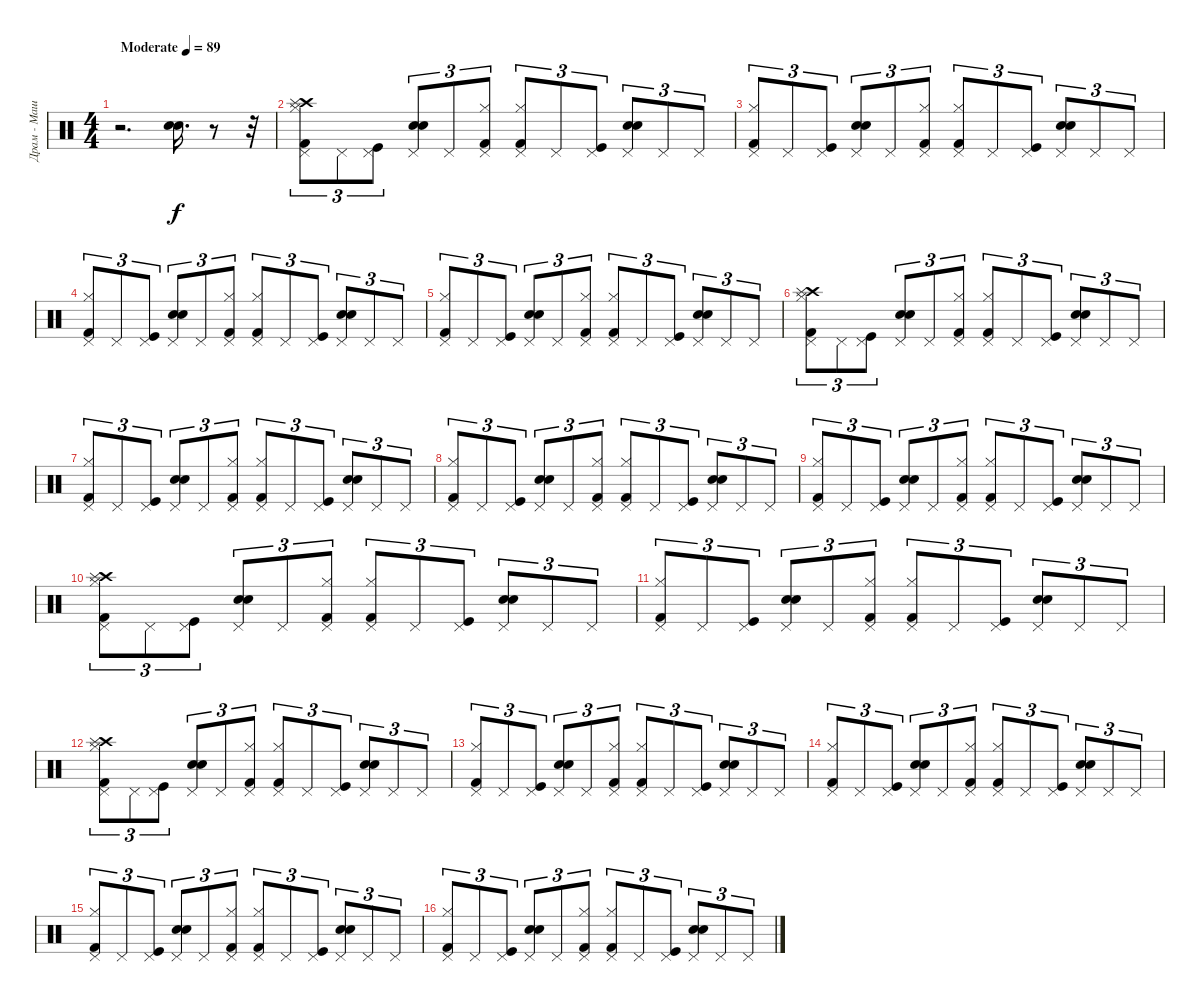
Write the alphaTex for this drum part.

\track ("Драм - Машина" "Драм - Маш") {instrument percussion}
\staff {score}
\articulation defaults
\ts (4 4)
\tempo (89 "Moderate")
\clef neutral
\ks c
r.2{d dy f} ("Snare (hit) 2" "Electric Snare (hit)").16{d} r.8 r.32 |
("Crash high (hit)" "Kick (hit) 2" "Hi-Hat (closed)" "Pedal Hi-Hat (hit)" "Splash (hit)").8{tu (3 2)} "Pedal Hi-Hat (hit)".8{tu (3 2)} ("Kick (hit)" "Pedal Hi-Hat (hit)").8{tu (3 2)} ("Snare (hit) 2" "Electric Snare (hit)" "Pedal Hi-Hat (hit)").8{tu (3 2)} "Pedal Hi-Hat (hit)".8{tu (3 2)} ("Hi-Hat (closed)" "Pedal Hi-Hat (hit)" "Kick (hit) 2").8{tu (3 2)} ("Kick (hit) 2" "Hi-Hat (closed)" "Pedal Hi-Hat (hit)").8{tu (3 2)} "Pedal Hi-Hat (hit)".8{tu (3 2)} ("Kick (hit)" "Pedal Hi-Hat (hit)").8{tu (3 2)} ("Snare (hit) 2" "Pedal Hi-Hat (hit)" "Electric Snare (hit)").8{tu (3 2)} "Pedal Hi-Hat (hit)".8{tu (3 2)} "Pedal Hi-Hat (hit)".8{tu (3 2)} |
("Kick (hit) 2" "Pedal Hi-Hat (hit)" "Hi-Hat (closed)").8{tu (3 2)} "Pedal Hi-Hat (hit)".8{tu (3 2)} ("Kick (hit)" "Pedal Hi-Hat (hit)").8{tu (3 2)} ("Snare (hit) 2" "Electric Snare (hit)" "Pedal Hi-Hat (hit)").8{tu (3 2)} "Pedal Hi-Hat (hit)".8{tu (3 2)} ("Hi-Hat (closed)" "Pedal Hi-Hat (hit)" "Kick (hit) 2").8{tu (3 2)} ("Kick (hit) 2" "Hi-Hat (closed)" "Pedal Hi-Hat (hit)").8{tu (3 2)} "Pedal Hi-Hat (hit)".8{tu (3 2)} ("Pedal Hi-Hat (hit)" "Kick (hit)").8{tu (3 2)} ("Pedal Hi-Hat (hit)" "Electric Snare (hit)" "Snare (hit) 2").8{tu (3 2)} "Pedal Hi-Hat (hit)".8{tu (3 2)} "Pedal Hi-Hat (hit)".8{tu (3 2)} |
("Hi-Hat (closed)" "Pedal Hi-Hat (hit)" "Kick (hit) 2").8{tu (3 2)} "Pedal Hi-Hat (hit)".8{tu (3 2)} ("Kick (hit)" "Pedal Hi-Hat (hit)").8{tu (3 2)} ("Snare (hit) 2" "Electric Snare (hit)" "Pedal Hi-Hat (hit)").8{tu (3 2)} "Pedal Hi-Hat (hit)".8{tu (3 2)} ("Hi-Hat (closed)" "Pedal Hi-Hat (hit)" "Kick (hit) 2").8{tu (3 2)} ("Kick (hit) 2" "Hi-Hat (closed)" "Pedal Hi-Hat (hit)").8{tu (3 2)} "Pedal Hi-Hat (hit)".8{tu (3 2)} ("Pedal Hi-Hat (hit)" "Kick (hit)").8{tu (3 2)} ("Pedal Hi-Hat (hit)" "Electric Snare (hit)" "Snare (hit) 2").8{tu (3 2)} "Pedal Hi-Hat (hit)".8{tu (3 2)} "Pedal Hi-Hat (hit)".8{tu (3 2)} |
("Kick (hit) 2" "Hi-Hat (closed)" "Pedal Hi-Hat (hit)").8{tu (3 2)} "Pedal Hi-Hat (hit)".8{tu (3 2)} ("Pedal Hi-Hat (hit)" "Kick (hit)").8{tu (3 2)} ("Snare (hit) 2" "Pedal Hi-Hat (hit)" "Electric Snare (hit)").8{tu (3 2)} "Pedal Hi-Hat (hit)".8{tu (3 2)} ("Hi-Hat (closed)" "Pedal Hi-Hat (hit)" "Kick (hit) 2").8{tu (3 2)} ("Kick (hit) 2" "Hi-Hat (closed)" "Pedal Hi-Hat (hit)").8{tu (3 2)} "Pedal Hi-Hat (hit)".8{tu (3 2)} ("Pedal Hi-Hat (hit)" "Kick (hit)").8{tu (3 2)} ("Electric Snare (hit)" "Pedal Hi-Hat (hit)" "Snare (hit) 2").8{tu (3 2)} "Pedal Hi-Hat (hit)".8{tu (3 2)} "Pedal Hi-Hat (hit)".8{tu (3 2)} |
("Crash high (hit)" "Hi-Hat (closed)" "Kick (hit) 2" "Splash (hit)" "Pedal Hi-Hat (hit)").8{tu (3 2)} "Pedal Hi-Hat (hit)".8{tu (3 2)} ("Kick (hit)" "Pedal Hi-Hat (hit)").8{tu (3 2)} ("Electric Snare (hit)" "Pedal Hi-Hat (hit)" "Snare (hit) 2").8{tu (3 2)} "Pedal Hi-Hat (hit)".8{tu (3 2)} ("Kick (hit) 2" "Pedal Hi-Hat (hit)" "Hi-Hat (closed)").8{tu (3 2)} ("Hi-Hat (closed)" "Pedal Hi-Hat (hit)" "Kick (hit) 2").8{tu (3 2)} "Pedal Hi-Hat (hit)".8{tu (3 2)} ("Pedal Hi-Hat (hit)" "Kick (hit)").8{tu (3 2)} ("Pedal Hi-Hat (hit)" "Electric Snare (hit)" "Snare (hit) 2").8{tu (3 2)} "Pedal Hi-Hat (hit)".8{tu (3 2)} "Pedal Hi-Hat (hit)".8{tu (3 2)} |
("Kick (hit) 2" "Hi-Hat (closed)" "Pedal Hi-Hat (hit)").8{tu (3 2)} "Pedal Hi-Hat (hit)".8{tu (3 2)} ("Pedal Hi-Hat (hit)" "Kick (hit)").8{tu (3 2)} ("Pedal Hi-Hat (hit)" "Snare (hit) 2" "Electric Snare (hit)").8{tu (3 2)} "Pedal Hi-Hat (hit)".8{tu (3 2)} ("Pedal Hi-Hat (hit)" "Kick (hit) 2" "Hi-Hat (closed)").8{tu (3 2)} ("Hi-Hat (closed)" "Kick (hit) 2" "Pedal Hi-Hat (hit)").8{tu (3 2)} "Pedal Hi-Hat (hit)".8{tu (3 2)} ("Kick (hit)" "Pedal Hi-Hat (hit)").8{tu (3 2)} ("Pedal Hi-Hat (hit)" "Snare (hit) 2" "Electric Snare (hit)").8{tu (3 2)} "Pedal Hi-Hat (hit)".8{tu (3 2)} "Pedal Hi-Hat (hit)".8{tu (3 2)} |
("Kick (hit) 2" "Hi-Hat (closed)" "Pedal Hi-Hat (hit)").8{tu (3 2)} "Pedal Hi-Hat (hit)".8{tu (3 2)} ("Kick (hit)" "Pedal Hi-Hat (hit)").8{tu (3 2)} ("Electric Snare (hit)" "Snare (hit) 2" "Pedal Hi-Hat (hit)").8{tu (3 2)} "Pedal Hi-Hat (hit)".8{tu (3 2)} ("Pedal Hi-Hat (hit)" "Hi-Hat (closed)" "Kick (hit) 2").8{tu (3 2)} ("Kick (hit) 2" "Hi-Hat (closed)" "Pedal Hi-Hat (hit)").8{tu (3 2)} "Pedal Hi-Hat (hit)".8{tu (3 2)} ("Kick (hit)" "Pedal Hi-Hat (hit)").8{tu (3 2)} ("Electric Snare (hit)" "Pedal Hi-Hat (hit)" "Snare (hit) 2").8{tu (3 2)} "Pedal Hi-Hat (hit)".8{tu (3 2)} "Pedal Hi-Hat (hit)".8{tu (3 2)} |
("Kick (hit) 2" "Hi-Hat (closed)" "Pedal Hi-Hat (hit)").8{tu (3 2)} "Pedal Hi-Hat (hit)".8{tu (3 2)} ("Kick (hit)" "Pedal Hi-Hat (hit)").8{tu (3 2)} ("Electric Snare (hit)" "Pedal Hi-Hat (hit)" "Snare (hit) 2").8{tu (3 2)} "Pedal Hi-Hat (hit)".8{tu (3 2)} ("Kick (hit) 2" "Pedal Hi-Hat (hit)" "Hi-Hat (closed)").8{tu (3 2)} ("Hi-Hat (closed)" "Pedal Hi-Hat (hit)" "Kick (hit) 2").8{tu (3 2)} "Pedal Hi-Hat (hit)".8{tu (3 2)} ("Pedal Hi-Hat (hit)" "Kick (hit)").8{tu (3 2)} ("Pedal Hi-Hat (hit)" "Electric Snare (hit)" "Snare (hit) 2").8{tu (3 2)} "Pedal Hi-Hat (hit)".8{tu (3 2)} "Pedal Hi-Hat (hit)".8{tu (3 2)} |
("Crash high (hit)" "Hi-Hat (closed)" "Splash (hit)" "Kick (hit) 2" "Pedal Hi-Hat (hit)").8{tu (3 2)} "Pedal Hi-Hat (hit)".8{tu (3 2)} ("Pedal Hi-Hat (hit)" "Kick (hit)").8{tu (3 2)} ("Pedal Hi-Hat (hit)" "Snare (hit) 2" "Electric Snare (hit)").8{tu (3 2)} "Pedal Hi-Hat (hit)".8{tu (3 2)} ("Pedal Hi-Hat (hit)" "Kick (hit) 2" "Hi-Hat (closed)").8{tu (3 2)} ("Hi-Hat (closed)" "Kick (hit) 2" "Pedal Hi-Hat (hit)").8{tu (3 2)} "Pedal Hi-Hat (hit)".8{tu (3 2)} ("Kick (hit)" "Pedal Hi-Hat (hit)").8{tu (3 2)} ("Pedal Hi-Hat (hit)" "Snare (hit) 2" "Electric Snare (hit)").8{tu (3 2)} "Pedal Hi-Hat (hit)".8{tu (3 2)} "Pedal Hi-Hat (hit)".8{tu (3 2)} |
("Hi-Hat (closed)" "Kick (hit) 2" "Pedal Hi-Hat (hit)").8{tu (3 2)} "Pedal Hi-Hat (hit)".8{tu (3 2)} ("Pedal Hi-Hat (hit)" "Kick (hit)").8{tu (3 2)} ("Snare (hit) 2" "Pedal Hi-Hat (hit)" "Electric Snare (hit)").8{tu (3 2)} "Pedal Hi-Hat (hit)".8{tu (3 2)} ("Hi-Hat (closed)" "Kick (hit) 2" "Pedal Hi-Hat (hit)").8{tu (3 2)} ("Kick (hit) 2" "Pedal Hi-Hat (hit)" "Hi-Hat (closed)").8{tu (3 2)} "Pedal Hi-Hat (hit)".8{tu (3 2)} ("Pedal Hi-Hat (hit)" "Kick (hit)").8{tu (3 2)} ("Snare (hit) 2" "Pedal Hi-Hat (hit)" "Electric Snare (hit)").8{tu (3 2)} "Pedal Hi-Hat (hit)".8{tu (3 2)} "Pedal Hi-Hat (hit)".8{tu (3 2)} |
("Crash high (hit)" "Splash (hit)" "Pedal Hi-Hat (hit)" "Kick (hit) 2" "Hi-Hat (closed)").8{tu (3 2)} "Pedal Hi-Hat (hit)".8{tu (3 2)} ("Kick (hit)" "Pedal Hi-Hat (hit)").8{tu (3 2)} ("Electric Snare (hit)" "Snare (hit) 2" "Pedal Hi-Hat (hit)").8{tu (3 2)} "Pedal Hi-Hat (hit)".8{tu (3 2)} ("Hi-Hat (closed)" "Kick (hit) 2" "Pedal Hi-Hat (hit)").8{tu (3 2)} ("Hi-Hat (closed)" "Kick (hit) 2" "Pedal Hi-Hat (hit)").8{tu (3 2)} "Pedal Hi-Hat (hit)".8{tu (3 2)} ("Pedal Hi-Hat (hit)" "Kick (hit)").8{tu (3 2)} ("Electric Snare (hit)" "Snare (hit) 2" "Pedal Hi-Hat (hit)").8{tu (3 2)} "Pedal Hi-Hat (hit)".8{tu (3 2)} "Pedal Hi-Hat (hit)".8{tu (3 2)} |
("Hi-Hat (closed)" "Kick (hit) 2" "Pedal Hi-Hat (hit)").8{tu (3 2)} "Pedal Hi-Hat (hit)".8{tu (3 2)} ("Kick (hit)" "Pedal Hi-Hat (hit)").8{tu (3 2)} ("Electric Snare (hit)" "Snare (hit) 2" "Pedal Hi-Hat (hit)").8{tu (3 2)} "Pedal Hi-Hat (hit)".8{tu (3 2)} ("Hi-Hat (closed)" "Kick (hit) 2" "Pedal Hi-Hat (hit)").8{tu (3 2)} ("Pedal Hi-Hat (hit)" "Kick (hit) 2" "Hi-Hat (closed)").8{tu (3 2)} "Pedal Hi-Hat (hit)".8{tu (3 2)} ("Kick (hit)" "Pedal Hi-Hat (hit)").8{tu (3 2)} ("Snare (hit) 2" "Pedal Hi-Hat (hit)" "Electric Snare (hit)").8{tu (3 2)} "Pedal Hi-Hat (hit)".8{tu (3 2)} "Pedal Hi-Hat (hit)".8{tu (3 2)} |
("Hi-Hat (closed)" "Kick (hit) 2" "Pedal Hi-Hat (hit)").8{tu (3 2)} "Pedal Hi-Hat (hit)".8{tu (3 2)} ("Pedal Hi-Hat (hit)" "Kick (hit)").8{tu (3 2)} ("Pedal Hi-Hat (hit)" "Snare (hit) 2" "Electric Snare (hit)").8{tu (3 2)} "Pedal Hi-Hat (hit)".8{tu (3 2)} ("Hi-Hat (closed)" "Kick (hit) 2" "Pedal Hi-Hat (hit)").8{tu (3 2)} ("Kick (hit) 2" "Hi-Hat (closed)" "Pedal Hi-Hat (hit)").8{tu (3 2)} "Pedal Hi-Hat (hit)".8{tu (3 2)} ("Kick (hit)" "Pedal Hi-Hat (hit)").8{tu (3 2)} ("Electric Snare (hit)" "Pedal Hi-Hat (hit)" "Snare (hit) 2").8{tu (3 2)} "Pedal Hi-Hat (hit)".8{tu (3 2)} "Pedal Hi-Hat (hit)".8{tu (3 2)} |
("Kick (hit) 2" "Pedal Hi-Hat (hit)" "Hi-Hat (closed)").8{tu (3 2)} "Pedal Hi-Hat (hit)".8{tu (3 2)} ("Kick (hit)" "Pedal Hi-Hat (hit)").8{tu (3 2)} ("Snare (hit) 2" "Electric Snare (hit)" "Pedal Hi-Hat (hit)").8{tu (3 2)} "Pedal Hi-Hat (hit)".8{tu (3 2)} ("Pedal Hi-Hat (hit)" "Kick (hit) 2" "Hi-Hat (closed)").8{tu (3 2)} ("Hi-Hat (closed)" "Kick (hit) 2" "Pedal Hi-Hat (hit)").8{tu (3 2)} "Pedal Hi-Hat (hit)".8{tu (3 2)} ("Kick (hit)" "Pedal Hi-Hat (hit)").8{tu (3 2)} ("Electric Snare (hit)" "Snare (hit) 2" "Pedal Hi-Hat (hit)").8{tu (3 2)} "Pedal Hi-Hat (hit)".8{tu (3 2)} "Pedal Hi-Hat (hit)".8{tu (3 2)} |
("Kick (hit) 2" "Hi-Hat (closed)" "Pedal Hi-Hat (hit)").8{tu (3 2)} "Pedal Hi-Hat (hit)".8{tu (3 2)} ("Kick (hit)" "Pedal Hi-Hat (hit)").8{tu (3 2)} ("Snare (hit) 2" "Pedal Hi-Hat (hit)" "Electric Snare (hit)").8{tu (3 2)} "Pedal Hi-Hat (hit)".8{tu (3 2)} ("Hi-Hat (closed)" "Pedal Hi-Hat (hit)" "Kick (hit) 2").8{tu (3 2)} ("Hi-Hat (closed)" "Pedal Hi-Hat (hit)" "Kick (hit) 2").8{tu (3 2)} "Pedal Hi-Hat (hit)".8{tu (3 2)} ("Pedal Hi-Hat (hit)" "Kick (hit)").8{tu (3 2)} ("Snare (hit) 2" "Electric Snare (hit)" "Pedal Hi-Hat (hit)").8{tu (3 2)} "Pedal Hi-Hat (hit)".8{tu (3 2)} "Pedal Hi-Hat (hit)".8{tu (3 2)}
